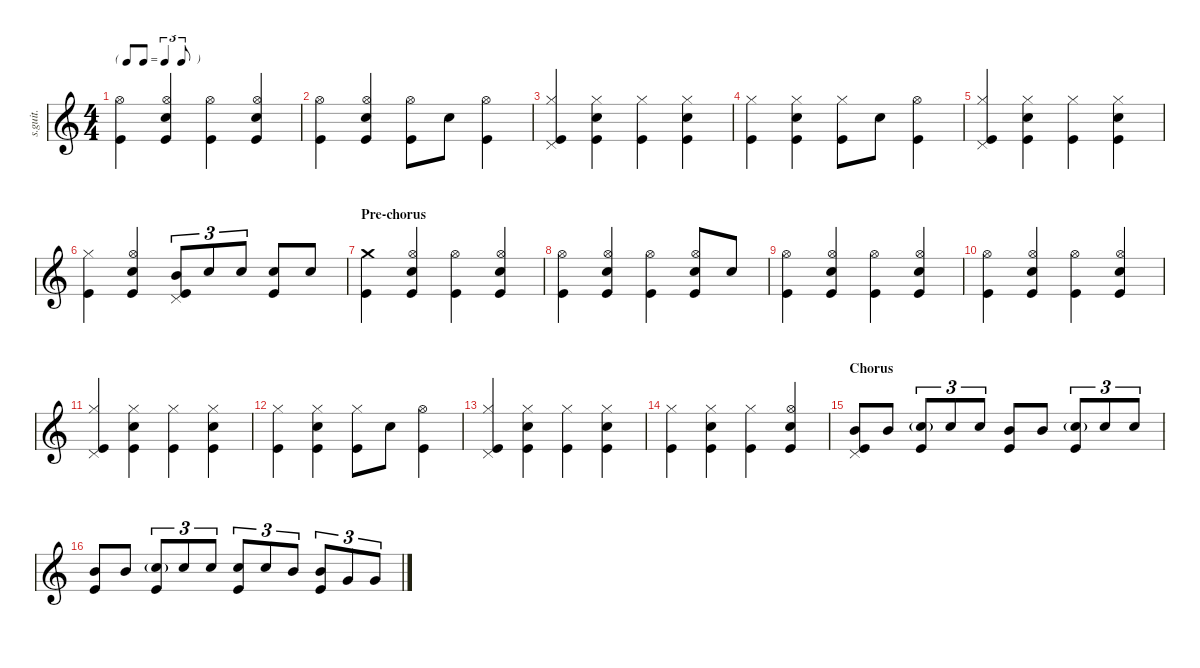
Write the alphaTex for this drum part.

\defaultSystemsLayout 4
\hideDynamics
\bracketExtendMode nobrackets
\track ("Dave Grohl" "s.guit.") {instrument percussion}
\staff {score}
\articulation defaults
\ts (4 4)
\tf triplet8th
\tempo (171 hide)
\clef g2
\ks c
("Kick (hit)" "Hi-Hat (open)").4{lyrics (0 "") lyrics (1 "") lyrics (2 "") lyrics (3 "") lyrics (4 "") dy mf} ("Kick (hit)" "Snare (hit) 2" "Hi-Hat (open)").4{lyrics (0 "") lyrics (1 "") lyrics (2 "") lyrics (3 "") lyrics (4 "")} ("Kick (hit)" "Hi-Hat (open)").4{lyrics (0 "") lyrics (1 "") lyrics (2 "") lyrics (3 "") lyrics (4 "")} ("Kick (hit)" "Snare (hit) 2" "Hi-Hat (open)").4{lyrics (0 "") lyrics (1 "") lyrics (2 "") lyrics (3 "") lyrics (4 "")} |
("Kick (hit)" "Hi-Hat (open)").4{lyrics (0 "") lyrics (1 "") lyrics (2 "") lyrics (3 "") lyrics (4 "")} ("Kick (hit)" "Snare (hit) 2" "Hi-Hat (open)").4{lyrics (0 "") lyrics (1 "") lyrics (2 "") lyrics (3 "") lyrics (4 "")} ("Kick (hit)" "Hi-Hat (open)").8{lyrics (0 "") lyrics (1 "") lyrics (2 "") lyrics (3 "") lyrics (4 "")} "Snare (hit) 2".8{lyrics (0 "") lyrics (1 "") lyrics (2 "") lyrics (3 "") lyrics (4 "")} ("Kick (hit)" "Hi-Hat (open)").4{lyrics (0 "") lyrics (1 "") lyrics (2 "") lyrics (3 "") lyrics (4 "")} |
("Kick (hit)" "Hi-Hat (closed)" "Pedal Hi-Hat (hit)").4{lyrics (0 "") lyrics (1 "") lyrics (2 "") lyrics (3 "") lyrics (4 "")} ("Kick (hit)" "Snare (hit) 2" "Hi-Hat (closed)").4{lyrics (0 "") lyrics (1 "") lyrics (2 "") lyrics (3 "") lyrics (4 "")} ("Kick (hit)" "Hi-Hat (closed)").4{lyrics (0 "") lyrics (1 "") lyrics (2 "") lyrics (3 "") lyrics (4 "")} ("Kick (hit)" "Snare (hit) 2" "Hi-Hat (closed)").4{lyrics (0 "") lyrics (1 "") lyrics (2 "") lyrics (3 "") lyrics (4 "")} |
("Kick (hit)" "Hi-Hat (closed)").4{lyrics (0 "") lyrics (1 "") lyrics (2 "") lyrics (3 "") lyrics (4 "")} ("Kick (hit)" "Snare (hit) 2" "Hi-Hat (closed)").4{lyrics (0 "") lyrics (1 "") lyrics (2 "") lyrics (3 "") lyrics (4 "")} ("Kick (hit)" "Hi-Hat (closed)").8{lyrics (0 "") lyrics (1 "") lyrics (2 "") lyrics (3 "") lyrics (4 "")} "Snare (hit) 2".8{lyrics (0 "") lyrics (1 "") lyrics (2 "") lyrics (3 "") lyrics (4 "")} ("Kick (hit)" "Hi-Hat (open)").4{lyrics (0 "") lyrics (1 "") lyrics (2 "") lyrics (3 "") lyrics (4 "")} |
("Kick (hit)" "Hi-Hat (closed)" "Pedal Hi-Hat (hit)").4{lyrics (0 "") lyrics (1 "") lyrics (2 "") lyrics (3 "") lyrics (4 "")} ("Kick (hit)" "Snare (hit) 2" "Hi-Hat (closed)").4{lyrics (0 "") lyrics (1 "") lyrics (2 "") lyrics (3 "") lyrics (4 "")} ("Kick (hit)" "Hi-Hat (closed)").4{lyrics (0 "") lyrics (1 "") lyrics (2 "") lyrics (3 "") lyrics (4 "")} ("Kick (hit)" "Snare (hit) 2" "Hi-Hat (closed)").4{lyrics (0 "") lyrics (1 "") lyrics (2 "") lyrics (3 "") lyrics (4 "")} |
("Kick (hit)" "Hi-Hat (closed)").4{lyrics (0 "") lyrics (1 "") lyrics (2 "") lyrics (3 "") lyrics (4 "")} ("Kick (hit)" "Snare (hit) 2" "Hi-Hat (open)").4{lyrics (0 "") lyrics (1 "") lyrics (2 "") lyrics (3 "") lyrics (4 "")} ("Kick (hit)" "Pedal Hi-Hat (hit)" "Mid Tom (hit)").8{tu (3 2) lyrics (0 "") lyrics (1 "") lyrics (2 "") lyrics (3 "") lyrics (4 "")} "Snare (hit) 2".8{tu (3 2) lyrics (0 "") lyrics (1 "") lyrics (2 "") lyrics (3 "") lyrics (4 "")} "Snare (hit) 2".8{tu (3 2) lyrics (0 "") lyrics (1 "") lyrics (2 "") lyrics (3 "") lyrics (4 "")} ("Kick (hit)" "Snare (hit) 2").8{lyrics (0 "") lyrics (1 "") lyrics (2 "") lyrics (3 "") lyrics (4 "")} "Snare (hit) 2".8{lyrics (0 "") lyrics (1 "") lyrics (2 "") lyrics (3 "") lyrics (4 "")} |
\section ("" "Pre-chorus")
("Kick (hit)" "Crash medium (hit)").4{lyrics (0 "") lyrics (1 "") lyrics (2 "") lyrics (3 "") lyrics (4 "")} ("Kick (hit)" "Snare (hit) 2" "Hi-Hat (open)").4{lyrics (0 "") lyrics (1 "") lyrics (2 "") lyrics (3 "") lyrics (4 "")} ("Kick (hit)" "Hi-Hat (open)").4{lyrics (0 "") lyrics (1 "") lyrics (2 "") lyrics (3 "") lyrics (4 "")} ("Kick (hit)" "Snare (hit) 2" "Hi-Hat (open)").4{lyrics (0 "") lyrics (1 "") lyrics (2 "") lyrics (3 "") lyrics (4 "")} |
("Kick (hit)" "Hi-Hat (open)").4{lyrics (0 "") lyrics (1 "") lyrics (2 "") lyrics (3 "") lyrics (4 "")} ("Kick (hit)" "Snare (hit) 2" "Hi-Hat (open)").4{lyrics (0 "") lyrics (1 "") lyrics (2 "") lyrics (3 "") lyrics (4 "")} ("Kick (hit)" "Hi-Hat (open)").4{lyrics (0 "") lyrics (1 "") lyrics (2 "") lyrics (3 "") lyrics (4 "")} ("Kick (hit)" "Snare (hit) 2" "Hi-Hat (open)").8{lyrics (0 "") lyrics (1 "") lyrics (2 "") lyrics (3 "") lyrics (4 "")} "Snare (hit) 2".8{lyrics (0 "") lyrics (1 "") lyrics (2 "") lyrics (3 "") lyrics (4 "")} |
("Kick (hit)" "Hi-Hat (open)").4{lyrics (0 "") lyrics (1 "") lyrics (2 "") lyrics (3 "") lyrics (4 "")} ("Kick (hit)" "Snare (hit) 2" "Hi-Hat (open)").4{lyrics (0 "") lyrics (1 "") lyrics (2 "") lyrics (3 "") lyrics (4 "")} ("Kick (hit)" "Hi-Hat (open)").4{lyrics (0 "") lyrics (1 "") lyrics (2 "") lyrics (3 "") lyrics (4 "")} ("Kick (hit)" "Snare (hit) 2" "Hi-Hat (open)").4{lyrics (0 "") lyrics (1 "") lyrics (2 "") lyrics (3 "") lyrics (4 "")} |
("Kick (hit)" "Hi-Hat (open)").4{lyrics (0 "") lyrics (1 "") lyrics (2 "") lyrics (3 "") lyrics (4 "")} ("Kick (hit)" "Snare (hit) 2" "Hi-Hat (open)").4{lyrics (0 "") lyrics (1 "") lyrics (2 "") lyrics (3 "") lyrics (4 "")} ("Kick (hit)" "Hi-Hat (open)").4{lyrics (0 "") lyrics (1 "") lyrics (2 "") lyrics (3 "") lyrics (4 "")} ("Kick (hit)" "Hi-Hat (open)" "Snare (hit) 2").4{lyrics (0 "") lyrics (1 "") lyrics (2 "") lyrics (3 "") lyrics (4 "")} |
("Kick (hit)" "Hi-Hat (closed)" "Pedal Hi-Hat (hit)").4{lyrics (0 "") lyrics (1 "") lyrics (2 "") lyrics (3 "") lyrics (4 "")} ("Kick (hit)" "Snare (hit) 2" "Hi-Hat (closed)").4{lyrics (0 "") lyrics (1 "") lyrics (2 "") lyrics (3 "") lyrics (4 "")} ("Kick (hit)" "Hi-Hat (closed)").4{lyrics (0 "") lyrics (1 "") lyrics (2 "") lyrics (3 "") lyrics (4 "")} ("Kick (hit)" "Snare (hit) 2" "Hi-Hat (closed)").4{lyrics (0 "") lyrics (1 "") lyrics (2 "") lyrics (3 "") lyrics (4 "")} |
("Kick (hit)" "Hi-Hat (closed)").4{lyrics (0 "") lyrics (1 "") lyrics (2 "") lyrics (3 "") lyrics (4 "")} ("Kick (hit)" "Snare (hit) 2" "Hi-Hat (closed)").4{lyrics (0 "") lyrics (1 "") lyrics (2 "") lyrics (3 "") lyrics (4 "")} ("Kick (hit)" "Hi-Hat (closed)").8{lyrics (0 "") lyrics (1 "") lyrics (2 "") lyrics (3 "") lyrics (4 "")} "Snare (hit) 2".8{lyrics (0 "") lyrics (1 "") lyrics (2 "") lyrics (3 "") lyrics (4 "")} ("Kick (hit)" "Hi-Hat (open)").4{lyrics (0 "") lyrics (1 "") lyrics (2 "") lyrics (3 "") lyrics (4 "")} |
("Kick (hit)" "Hi-Hat (closed)" "Pedal Hi-Hat (hit)").4{lyrics (0 "") lyrics (1 "") lyrics (2 "") lyrics (3 "") lyrics (4 "")} ("Kick (hit)" "Snare (hit) 2" "Hi-Hat (closed)").4{lyrics (0 "") lyrics (1 "") lyrics (2 "") lyrics (3 "") lyrics (4 "")} ("Kick (hit)" "Hi-Hat (closed)").4{lyrics (0 "") lyrics (1 "") lyrics (2 "") lyrics (3 "") lyrics (4 "")} ("Kick (hit)" "Snare (hit) 2" "Hi-Hat (closed)").4{lyrics (0 "") lyrics (1 "") lyrics (2 "") lyrics (3 "") lyrics (4 "")} |
("Kick (hit)" "Hi-Hat (closed)").4{lyrics (0 "") lyrics (1 "") lyrics (2 "") lyrics (3 "") lyrics (4 "")} ("Kick (hit)" "Snare (hit) 2" "Hi-Hat (closed)").4{lyrics (0 "") lyrics (1 "") lyrics (2 "") lyrics (3 "") lyrics (4 "")} ("Kick (hit)" "Hi-Hat (closed)").4{lyrics (0 "") lyrics (1 "") lyrics (2 "") lyrics (3 "") lyrics (4 "")} ("Hi-Hat (open)" "Snare (hit) 2" "Kick (hit)").4{lyrics (0 "") lyrics (1 "") lyrics (2 "") lyrics (3 "") lyrics (4 "")} |
\section ("" "Chorus")
("Kick (hit)" "Mid Tom (hit)" "Pedal Hi-Hat (hit)").8{lyrics (0 "") lyrics (1 "") lyrics (2 "") lyrics (3 "") lyrics (4 "")} "Mid Tom (hit)".8{lyrics (0 "") lyrics (1 "") lyrics (2 "") lyrics (3 "") lyrics (4 "")} ("Snare (hit) 2"{g} "Kick (hit)").8{tu (3 2) lyrics (0 "") lyrics (1 "") lyrics (2 "") lyrics (3 "") lyrics (4 "")} "Snare (hit) 2".8{tu (3 2) lyrics (0 "") lyrics (1 "") lyrics (2 "") lyrics (3 "") lyrics (4 "")} "Snare (hit) 2".8{tu (3 2) lyrics (0 "") lyrics (1 "") lyrics (2 "") lyrics (3 "") lyrics (4 "")} ("Mid Tom (hit)" "Kick (hit)").8{lyrics (0 "") lyrics (1 "") lyrics (2 "") lyrics (3 "") lyrics (4 "")} "Mid Tom (hit)".8{lyrics (0 "") lyrics (1 "") lyrics (2 "") lyrics (3 "") lyrics (4 "")} ("Snare (hit) 2"{g} "Kick (hit)").8{tu (3 2) lyrics (0 "") lyrics (1 "") lyrics (2 "") lyrics (3 "") lyrics (4 "")} "Snare (hit) 2".8{tu (3 2) lyrics (0 "") lyrics (1 "") lyrics (2 "") lyrics (3 "") lyrics (4 "")} "Snare (hit) 2".8{tu (3 2) lyrics (0 "") lyrics (1 "") lyrics (2 "") lyrics (3 "") lyrics (4 "")} |
("Mid Tom (hit)" "Kick (hit)").8{lyrics (0 "") lyrics (1 "") lyrics (2 "") lyrics (3 "") lyrics (4 "")} "Mid Tom (hit)".8{lyrics (0 "") lyrics (1 "") lyrics (2 "") lyrics (3 "") lyrics (4 "")} ("Snare (hit) 2"{g} "Kick (hit)").8{tu (3 2) lyrics (0 "") lyrics (1 "") lyrics (2 "") lyrics (3 "") lyrics (4 "")} "Snare (hit) 2".8{tu (3 2) lyrics (0 "") lyrics (1 "") lyrics (2 "") lyrics (3 "") lyrics (4 "")} "Snare (hit) 2".8{tu (3 2) lyrics (0 "") lyrics (1 "") lyrics (2 "") lyrics (3 "") lyrics (4 "")} ("Snare (hit) 2" "Kick (hit)").8{tu (3 2) lyrics (0 "") lyrics (1 "") lyrics (2 "") lyrics (3 "") lyrics (4 "")} "Snare (hit) 2".8{tu (3 2) lyrics (0 "") lyrics (1 "") lyrics (2 "") lyrics (3 "") lyrics (4 "")} "Mid Tom (hit)".8{tu (3 2) lyrics (0 "") lyrics (1 "") lyrics (2 "") lyrics (3 "") lyrics (4 "")} ("Mid Tom (hit)" "Kick (hit)").8{tu (3 2) lyrics (0 "") lyrics (1 "") lyrics (2 "") lyrics (3 "") lyrics (4 "")} "Very Low Tom (hit)".8{tu (3 2) lyrics (0 "") lyrics (1 "") lyrics (2 "") lyrics (3 "") lyrics (4 "")} "Very Low Tom (hit)".8{tu (3 2) lyrics (0 "") lyrics (1 "") lyrics (2 "") lyrics (3 "") lyrics (4 "")}
